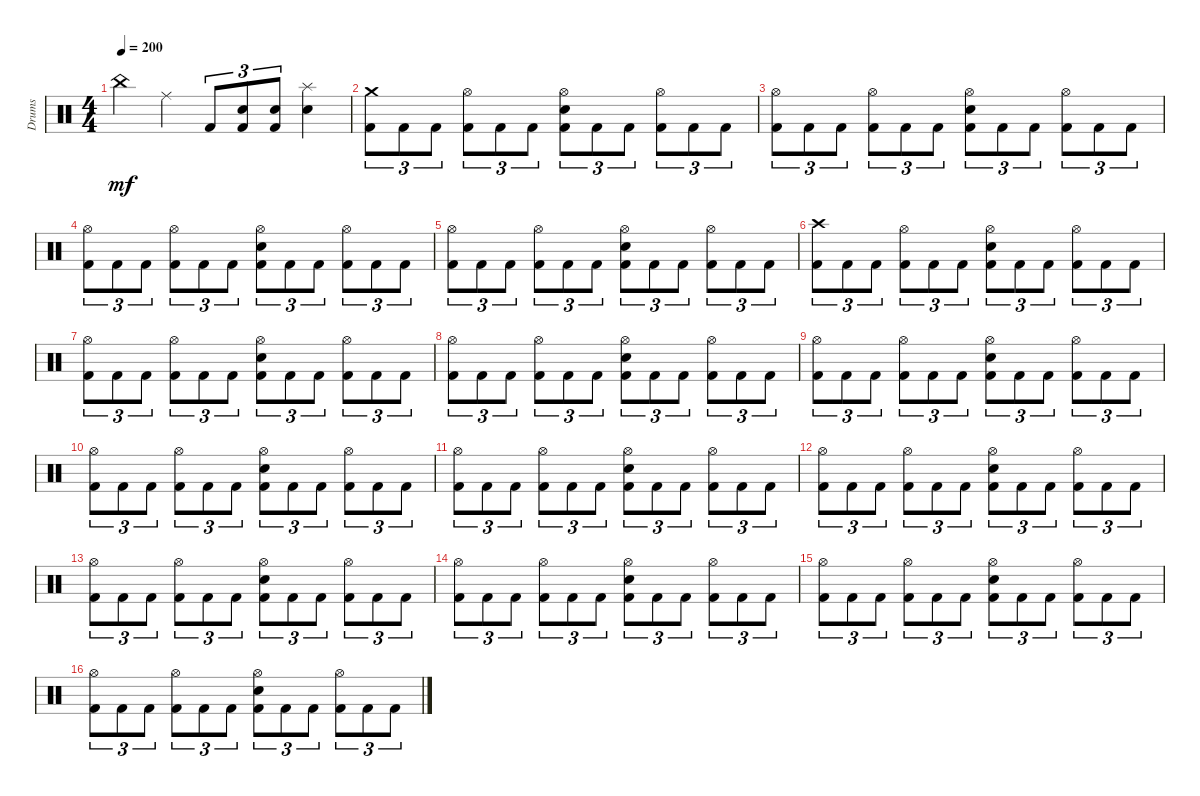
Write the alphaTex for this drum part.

\track ("Drums" "Drums") {instrument percussion}
\staff {score}
\articulation defaults
\ts (4 4)
\tempo 200
\clef neutral
\ks c "China (hit)".4{dy mf} "Ride (middle)".4 "Kick (hit) 2".8{tu (3 2)}
("Electric Snare (hit)" "Kick (hit) 2").8{tu (3 2)} ("Electric Snare (hit)" "Kick (hit) 2").8{tu (3 2)} ("Splash (hit)" "Electric Snare (hit)").4 |
("Crash medium (hit)" "Kick (hit) 2").8{tu (3 2)} "Kick (hit) 2".8{tu (3 2)} "Kick (hit) 2".8{tu (3 2)} ("Hi-Hat (open)" "Kick (hit) 2").8{tu (3 2)} "Kick (hit) 2".8{tu (3 2)} "Kick (hit) 2".8{tu (3 2)} ("Hi-Hat (open)" "Electric Snare (hit)" "Kick (hit) 2").8{tu (3 2)} "Kick (hit) 2".8{tu (3 2)} "Kick (hit) 2".8{tu (3 2)} ("Hi-Hat (open)" "Kick (hit) 2").8{tu (3 2)} "Kick (hit) 2".8{tu (3 2)} "Kick (hit) 2".8{tu (3 2)} |
("Hi-Hat (open)" "Kick (hit) 2").8{tu (3 2)} "Kick (hit) 2".8{tu (3 2)} "Kick (hit) 2".8{tu (3 2)} ("Hi-Hat (open)" "Kick (hit) 2").8{tu (3 2)} "Kick (hit) 2".8{tu (3 2)} "Kick (hit) 2".8{tu (3 2)} ("Hi-Hat (open)" "Electric Snare (hit)" "Kick (hit) 2").8{tu (3 2)} "Kick (hit) 2".8{tu (3 2)} "Kick (hit) 2".8{tu (3 2)} ("Hi-Hat (open)" "Kick (hit) 2").8{tu (3 2)} "Kick (hit) 2".8{tu (3 2)} "Kick (hit) 2".8{tu (3 2)} |
("Hi-Hat (open)" "Kick (hit) 2").8{tu (3 2)} "Kick (hit) 2".8{tu (3 2)} "Kick (hit) 2".8{tu (3 2)} ("Hi-Hat (open)" "Kick (hit) 2").8{tu (3 2)} "Kick (hit) 2".8{tu (3 2)} "Kick (hit) 2".8{tu (3 2)} ("Hi-Hat (open)" "Electric Snare (hit)" "Kick (hit) 2").8{tu (3 2)} "Kick (hit) 2".8{tu (3 2)} "Kick (hit) 2".8{tu (3 2)} ("Hi-Hat (open)" "Kick (hit) 2").8{tu (3 2)} "Kick (hit) 2".8{tu (3 2)} "Kick (hit) 2".8{tu (3 2)} |
("Hi-Hat (open)" "Kick (hit) 2").8{tu (3 2)} "Kick (hit) 2".8{tu (3 2)} "Kick (hit) 2".8{tu (3 2)} ("Hi-Hat (open)" "Kick (hit) 2").8{tu (3 2)} "Kick (hit) 2".8{tu (3 2)} "Kick (hit) 2".8{tu (3 2)} ("Hi-Hat (open)" "Electric Snare (hit)" "Kick (hit) 2").8{tu (3 2)} "Kick (hit) 2".8{tu (3 2)} "Kick (hit) 2".8{tu (3 2)} ("Hi-Hat (open)" "Kick (hit) 2").8{tu (3 2)} "Kick (hit) 2".8{tu (3 2)} "Kick (hit) 2".8{tu (3 2)} |
("Crash high (hit)" "Kick (hit) 2").8{tu (3 2)} "Kick (hit) 2".8{tu (3 2)} "Kick (hit) 2".8{tu (3 2)} ("Hi-Hat (open)" "Kick (hit) 2").8{tu (3 2)} "Kick (hit) 2".8{tu (3 2)} "Kick (hit) 2".8{tu (3 2)} ("Hi-Hat (open)" "Electric Snare (hit)" "Kick (hit) 2").8{tu (3 2)} "Kick (hit) 2".8{tu (3 2)} "Kick (hit) 2".8{tu (3 2)} ("Hi-Hat (open)" "Kick (hit) 2").8{tu (3 2)} "Kick (hit) 2".8{tu (3 2)} "Kick (hit) 2".8{tu (3 2)} |
("Hi-Hat (open)" "Kick (hit) 2").8{tu (3 2)} "Kick (hit) 2".8{tu (3 2)} "Kick (hit) 2".8{tu (3 2)} ("Hi-Hat (open)" "Kick (hit) 2").8{tu (3 2)} "Kick (hit) 2".8{tu (3 2)} "Kick (hit) 2".8{tu (3 2)} ("Hi-Hat (open)" "Electric Snare (hit)" "Kick (hit) 2").8{tu (3 2)} "Kick (hit) 2".8{tu (3 2)} "Kick (hit) 2".8{tu (3 2)} ("Hi-Hat (open)" "Kick (hit) 2").8{tu (3 2)} "Kick (hit) 2".8{tu (3 2)} "Kick (hit) 2".8{tu (3 2)} |
("Hi-Hat (open)" "Kick (hit) 2").8{tu (3 2)} "Kick (hit) 2".8{tu (3 2)} "Kick (hit) 2".8{tu (3 2)} ("Hi-Hat (open)" "Kick (hit) 2").8{tu (3 2)} "Kick (hit) 2".8{tu (3 2)} "Kick (hit) 2".8{tu (3 2)} ("Hi-Hat (open)" "Electric Snare (hit)" "Kick (hit) 2").8{tu (3 2)} "Kick (hit) 2".8{tu (3 2)} "Kick (hit) 2".8{tu (3 2)} ("Hi-Hat (open)" "Kick (hit) 2").8{tu (3 2)} "Kick (hit) 2".8{tu (3 2)} "Kick (hit) 2".8{tu (3 2)} |
("Hi-Hat (open)" "Kick (hit) 2").8{tu (3 2)} "Kick (hit) 2".8{tu (3 2)} "Kick (hit) 2".8{tu (3 2)} ("Hi-Hat (open)" "Kick (hit) 2").8{tu (3 2)} "Kick (hit) 2".8{tu (3 2)} "Kick (hit) 2".8{tu (3 2)} ("Hi-Hat (open)" "Electric Snare (hit)" "Kick (hit) 2").8{tu (3 2)} "Kick (hit) 2".8{tu (3 2)} "Kick (hit) 2".8{tu (3 2)} ("Hi-Hat (open)" "Kick (hit) 2").8{tu (3 2)} "Kick (hit) 2".8{tu (3 2)} "Kick (hit) 2".8{tu (3 2)} |
("Hi-Hat (open)" "Kick (hit) 2").8{tu (3 2)} "Kick (hit) 2".8{tu (3 2)} "Kick (hit) 2".8{tu (3 2)} ("Hi-Hat (open)" "Kick (hit) 2").8{tu (3 2)} "Kick (hit) 2".8{tu (3 2)} "Kick (hit) 2".8{tu (3 2)} ("Hi-Hat (open)" "Electric Snare (hit)" "Kick (hit) 2").8{tu (3 2)} "Kick (hit) 2".8{tu (3 2)} "Kick (hit) 2".8{tu (3 2)} ("Hi-Hat (open)" "Kick (hit) 2").8{tu (3 2)} "Kick (hit) 2".8{tu (3 2)} "Kick (hit) 2".8{tu (3 2)} |
("Hi-Hat (open)" "Kick (hit) 2").8{tu (3 2)} "Kick (hit) 2".8{tu (3 2)} "Kick (hit) 2".8{tu (3 2)} ("Hi-Hat (open)" "Kick (hit) 2").8{tu (3 2)} "Kick (hit) 2".8{tu (3 2)} "Kick (hit) 2".8{tu (3 2)} ("Hi-Hat (open)" "Electric Snare (hit)" "Kick (hit) 2").8{tu (3 2)} "Kick (hit) 2".8{tu (3 2)} "Kick (hit) 2".8{tu (3 2)} ("Hi-Hat (open)" "Kick (hit) 2").8{tu (3 2)} "Kick (hit) 2".8{tu (3 2)} "Kick (hit) 2".8{tu (3 2)} |
("Hi-Hat (open)" "Kick (hit) 2").8{tu (3 2)} "Kick (hit) 2".8{tu (3 2)} "Kick (hit) 2".8{tu (3 2)} ("Hi-Hat (open)" "Kick (hit) 2").8{tu (3 2)} "Kick (hit) 2".8{tu (3 2)} "Kick (hit) 2".8{tu (3 2)} ("Hi-Hat (open)" "Electric Snare (hit)" "Kick (hit) 2").8{tu (3 2)} "Kick (hit) 2".8{tu (3 2)} "Kick (hit) 2".8{tu (3 2)} ("Hi-Hat (open)" "Kick (hit) 2").8{tu (3 2)} "Kick (hit) 2".8{tu (3 2)} "Kick (hit) 2".8{tu (3 2)} |
("Hi-Hat (open)" "Kick (hit) 2").8{tu (3 2)} "Kick (hit) 2".8{tu (3 2)} "Kick (hit) 2".8{tu (3 2)} ("Hi-Hat (open)" "Kick (hit) 2").8{tu (3 2)} "Kick (hit) 2".8{tu (3 2)} "Kick (hit) 2".8{tu (3 2)} ("Hi-Hat (open)" "Electric Snare (hit)" "Kick (hit) 2").8{tu (3 2)} "Kick (hit) 2".8{tu (3 2)} "Kick (hit) 2".8{tu (3 2)} ("Hi-Hat (open)" "Kick (hit) 2").8{tu (3 2)} "Kick (hit) 2".8{tu (3 2)} "Kick (hit) 2".8{tu (3 2)} |
("Hi-Hat (open)" "Kick (hit) 2").8{tu (3 2)} "Kick (hit) 2".8{tu (3 2)} "Kick (hit) 2".8{tu (3 2)} ("Hi-Hat (open)" "Kick (hit) 2").8{tu (3 2)} "Kick (hit) 2".8{tu (3 2)} "Kick (hit) 2".8{tu (3 2)} ("Hi-Hat (open)" "Electric Snare (hit)" "Kick (hit) 2").8{tu (3 2)} "Kick (hit) 2".8{tu (3 2)} "Kick (hit) 2".8{tu (3 2)} ("Hi-Hat (open)" "Kick (hit) 2").8{tu (3 2)} "Kick (hit) 2".8{tu (3 2)} "Kick (hit) 2".8{tu (3 2)} |
("Hi-Hat (open)" "Kick (hit) 2").8{tu (3 2)} "Kick (hit) 2".8{tu (3 2)} "Kick (hit) 2".8{tu (3 2)} ("Hi-Hat (open)" "Kick (hit) 2").8{tu (3 2)} "Kick (hit) 2".8{tu (3 2)} "Kick (hit) 2".8{tu (3 2)} ("Hi-Hat (open)" "Electric Snare (hit)" "Kick (hit) 2").8{tu (3 2)} "Kick (hit) 2".8{tu (3 2)} "Kick (hit) 2".8{tu (3 2)} ("Hi-Hat (open)" "Kick (hit) 2").8{tu (3 2)} "Kick (hit) 2".8{tu (3 2)} "Kick (hit) 2".8{tu (3 2)} |
("Hi-Hat (open)" "Kick (hit) 2").8{tu (3 2)} "Kick (hit) 2".8{tu (3 2)} "Kick (hit) 2".8{tu (3 2)} ("Hi-Hat (open)" "Kick (hit) 2").8{tu (3 2)} "Kick (hit) 2".8{tu (3 2)} "Kick (hit) 2".8{tu (3 2)} ("Hi-Hat (open)" "Electric Snare (hit)" "Kick (hit) 2").8{tu (3 2)} "Kick (hit) 2".8{tu (3 2)} "Kick (hit) 2".8{tu (3 2)} ("Hi-Hat (open)" "Kick (hit) 2").8{tu (3 2)} "Kick (hit) 2".8{tu (3 2)} "Kick (hit) 2".8{tu (3 2)}
